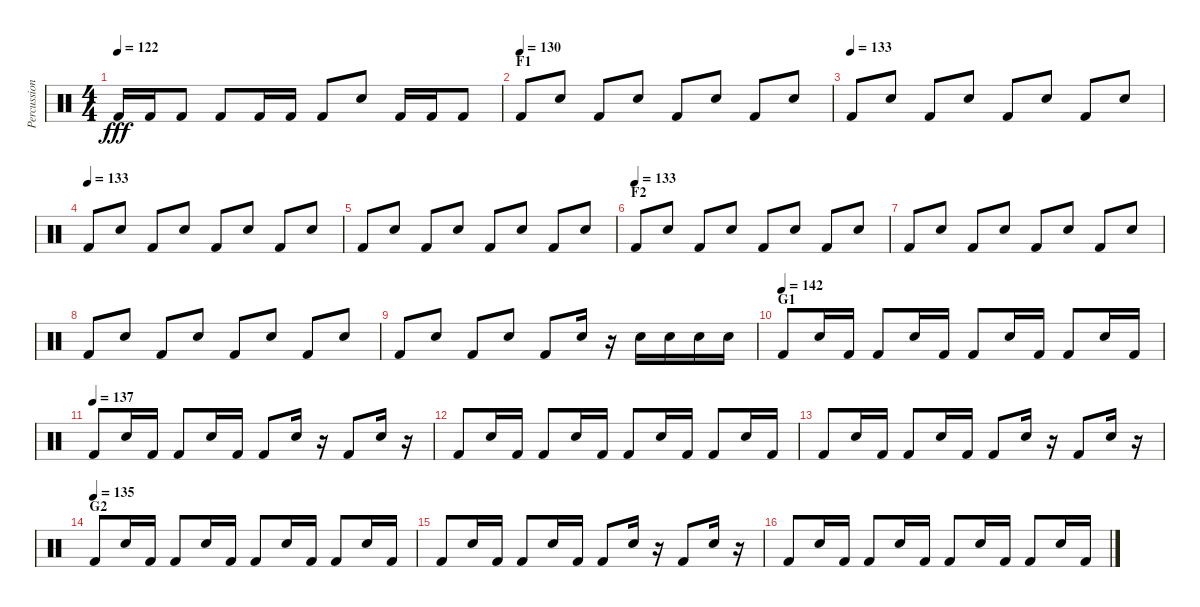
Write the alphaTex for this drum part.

\track ("Percussion" "Percussion") {instrument percussion}
\staff {score}
\articulation defaults
\ts (4 4)
\tempo 122
\clef neutral
\ks c "Kick (hit) 2".16{dy fff} "Kick (hit) 2".16 "Kick (hit) 2".8 "Kick (hit) 2".8 "Kick (hit) 2".16 "Kick (hit) 2".16 "Kick (hit) 2".8 "Electric Snare (hit)".8 "Kick (hit) 2".16 "Kick (hit) 2".16 "Kick (hit) 2".8
|
\section ("" "F1")
\tempo (130)
"Kick (hit) 2".8 "Electric Snare (hit)".8 "Kick (hit) 2".8 "Electric Snare (hit)".8 "Kick (hit) 2".8 "Electric Snare (hit)".8 "Kick (hit) 2".8 "Electric Snare (hit)".8 |
\tempo (133)
"Kick (hit) 2".8 "Electric Snare (hit)".8 "Kick (hit) 2".8 "Electric Snare (hit)".8 "Kick (hit) 2".8 "Electric Snare (hit)".8 "Kick (hit) 2".8 "Electric Snare (hit)".8 |
\tempo (133)
"Kick (hit) 2".8 "Electric Snare (hit)".8 "Kick (hit) 2".8 "Electric Snare (hit)".8 "Kick (hit) 2".8 "Electric Snare (hit)".8 "Kick (hit) 2".8 "Electric Snare (hit)".8 |
"Kick (hit) 2".8 "Electric Snare (hit)".8 "Kick (hit) 2".8 "Electric Snare (hit)".8 "Kick (hit) 2".8 "Electric Snare (hit)".8 "Kick (hit) 2".8 "Electric Snare (hit)".8 |
\section ("" "F2")
\tempo (133)
"Kick (hit) 2".8 "Electric Snare (hit)".8 "Kick (hit) 2".8 "Electric Snare (hit)".8 "Kick (hit) 2".8 "Electric Snare (hit)".8 "Kick (hit) 2".8 "Electric Snare (hit)".8 |
"Kick (hit) 2".8 "Electric Snare (hit)".8 "Kick (hit) 2".8 "Electric Snare (hit)".8 "Kick (hit) 2".8 "Electric Snare (hit)".8 "Kick (hit) 2".8 "Electric Snare (hit)".8 |
"Kick (hit) 2".8 "Electric Snare (hit)".8 "Kick (hit) 2".8 "Electric Snare (hit)".8 "Kick (hit) 2".8 "Electric Snare (hit)".8 "Kick (hit) 2".8 "Electric Snare (hit)".8 |
"Kick (hit) 2".8 "Electric Snare (hit)".8 "Kick (hit) 2".8 "Electric Snare (hit)".8 "Kick (hit) 2".8 "Electric Snare (hit)".16 r.16 "Electric Snare (hit)".16 "Electric Snare (hit)".16 "Electric Snare (hit)".16 "Electric Snare (hit)".16 |
\section ("" "G1")
\tempo (142)
"Kick (hit) 2".8 "Electric Snare (hit)".16 "Kick (hit) 2".16 "Kick (hit) 2".8 "Electric Snare (hit)".16 "Kick (hit) 2".16 "Kick (hit) 2".8 "Electric Snare (hit)".16 "Kick (hit) 2".16 "Kick (hit) 2".8 "Electric Snare (hit)".16 "Kick (hit) 2".16 |
\tempo (137)
"Kick (hit) 2".8 "Electric Snare (hit)".16 "Kick (hit) 2".16 "Kick (hit) 2".8 "Electric Snare (hit)".16 "Kick (hit) 2".16 "Kick (hit) 2".8 "Electric Snare (hit)".16 r.16 "Kick (hit) 2".8 "Electric Snare (hit)".16 r.16 |
"Kick (hit) 2".8 "Electric Snare (hit)".16 "Kick (hit) 2".16 "Kick (hit) 2".8 "Electric Snare (hit)".16 "Kick (hit) 2".16 "Kick (hit) 2".8 "Electric Snare (hit)".16 "Kick (hit) 2".16 "Kick (hit) 2".8 "Electric Snare (hit)".16 "Kick (hit) 2".16 |
"Kick (hit) 2".8 "Electric Snare (hit)".16 "Kick (hit) 2".16 "Kick (hit) 2".8 "Electric Snare (hit)".16 "Kick (hit) 2".16 "Kick (hit) 2".8 "Electric Snare (hit)".16 r.16 "Kick (hit) 2".8 "Electric Snare (hit)".16 r.16 |
\section ("" "G2")
\tempo (135)
"Kick (hit) 2".8 "Electric Snare (hit)".16 "Kick (hit) 2".16 "Kick (hit) 2".8 "Electric Snare (hit)".16 "Kick (hit) 2".16 "Kick (hit) 2".8 "Electric Snare (hit)".16 "Kick (hit) 2".16 "Kick (hit) 2".8 "Electric Snare (hit)".16 "Kick (hit) 2".16 |
"Kick (hit) 2".8 "Electric Snare (hit)".16 "Kick (hit) 2".16 "Kick (hit) 2".8 "Electric Snare (hit)".16 "Kick (hit) 2".16 "Kick (hit) 2".8 "Electric Snare (hit)".16 r.16 "Kick (hit) 2".8 "Electric Snare (hit)".16 r.16 |
"Kick (hit) 2".8 "Electric Snare (hit)".16 "Kick (hit) 2".16 "Kick (hit) 2".8 "Electric Snare (hit)".16 "Kick (hit) 2".16 "Kick (hit) 2".8 "Electric Snare (hit)".16 "Kick (hit) 2".16 "Kick (hit) 2".8 "Electric Snare (hit)".16 "Kick (hit) 2".16
